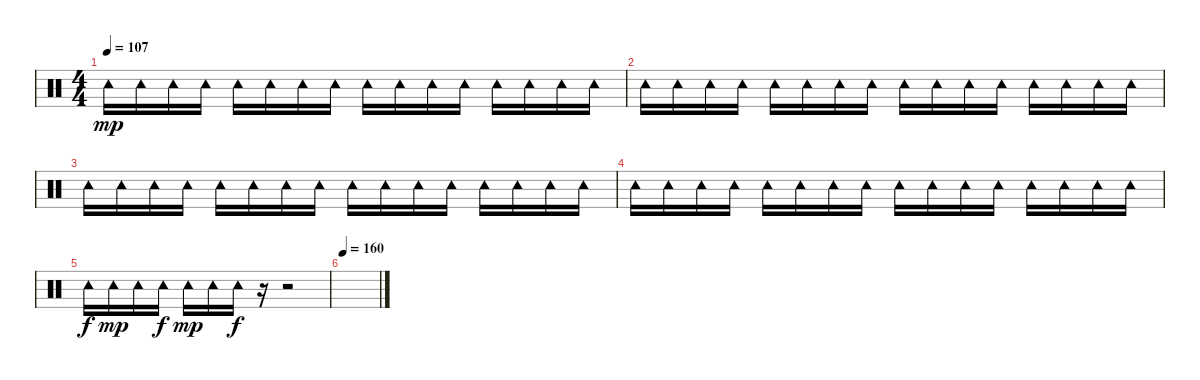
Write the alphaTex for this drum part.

\track "" {instrument percussion}
\staff {score}
\articulation defaults
\ts (4 4)
\tempo 107
\clef neutral
\ks c "Tambourine (hit)".16{dy mp} "Tambourine (hit)".16 "Tambourine (hit)".16 "Tambourine (hit)".16 "Tambourine (hit)".16 "Tambourine (hit)".16 "Tambourine (hit)".16 "Tambourine (hit)".16 "Tambourine (hit)".16 "Tambourine (hit)".16 "Tambourine (hit)".16 "Tambourine (hit)".16 "Tambourine (hit)".16 "Tambourine (hit)".16 "Tambourine (hit)".16 "Tambourine (hit)".16
|
"Tambourine (hit)".16 "Tambourine (hit)".16 "Tambourine (hit)".16 "Tambourine (hit)".16 "Tambourine (hit)".16 "Tambourine (hit)".16 "Tambourine (hit)".16 "Tambourine (hit)".16 "Tambourine (hit)".16 "Tambourine (hit)".16 "Tambourine (hit)".16 "Tambourine (hit)".16 "Tambourine (hit)".16 "Tambourine (hit)".16 "Tambourine (hit)".16 "Tambourine (hit)".16 |
"Tambourine (hit)".16 "Tambourine (hit)".16 "Tambourine (hit)".16 "Tambourine (hit)".16 "Tambourine (hit)".16 "Tambourine (hit)".16 "Tambourine (hit)".16 "Tambourine (hit)".16 "Tambourine (hit)".16 "Tambourine (hit)".16 "Tambourine (hit)".16 "Tambourine (hit)".16 "Tambourine (hit)".16 "Tambourine (hit)".16 "Tambourine (hit)".16 "Tambourine (hit)".16 |
"Tambourine (hit)".16 "Tambourine (hit)".16 "Tambourine (hit)".16 "Tambourine (hit)".16 "Tambourine (hit)".16 "Tambourine (hit)".16 "Tambourine (hit)".16 "Tambourine (hit)".16 "Tambourine (hit)".16 "Tambourine (hit)".16 "Tambourine (hit)".16 "Tambourine (hit)".16 "Tambourine (hit)".16 "Tambourine (hit)".16 "Tambourine (hit)".16 "Tambourine (hit)".16 |
"Tambourine (hit)".16{dy f} "Tambourine (hit)".16{dy mp} "Tambourine (hit)".16 "Tambourine (hit)".16{dy f} "Tambourine (hit)".16{dy mp} "Tambourine (hit)".16 "Tambourine (hit)".16{dy f} r.16 r.2 |
\tempo 160
